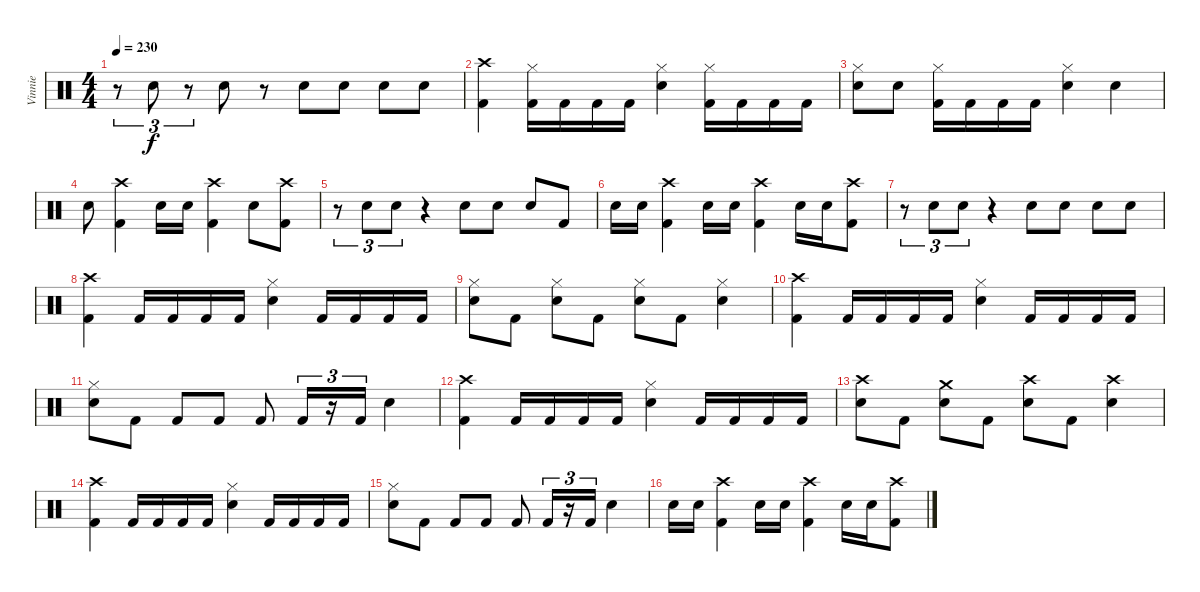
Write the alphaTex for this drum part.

\track ("Vinnie" "Vinnie") {instrument percussion}
\staff {score}
\articulation defaults
\ts (4 4)
\tempo 230
\clef neutral
\ks c
r.8{tu (3 2) dy f} "Electric Snare (hit)".8{tu (3 2)} r.8{tu (3 2)} "Electric Snare (hit)".8 r.8 "Electric Snare (hit)".8 "Electric Snare (hit)".8 "Electric Snare (hit)".8 "Electric Snare (hit)".8 |
("Crash high (hit)" "Kick (hit) 2").4 ("Hi-Hat (closed)" "Kick (hit) 2").16 "Kick (hit) 2".16 "Kick (hit) 2".16 "Kick (hit) 2".16 ("Hi-Hat (closed)" "Electric Snare (hit)").4 ("Hi-Hat (closed)" "Kick (hit) 2").16 "Kick (hit) 2".16 "Kick (hit) 2".16 "Kick (hit) 2".16 |
("Hi-Hat (closed)" "Electric Snare (hit)").8 "Electric Snare (hit)".8 ("Hi-Hat (closed)" "Kick (hit) 2").16 "Kick (hit) 2".16 "Kick (hit) 2".16 "Kick (hit) 2".16 ("Hi-Hat (closed)" "Electric Snare (hit)").4 "Electric Snare (hit)".4 |
"Electric Snare (hit)".8 ("Crash high (hit)" "Kick (hit) 2").4 "Electric Snare (hit)".16 "Electric Snare (hit)".16 ("Crash high (hit)" "Kick (hit) 2").4 "Electric Snare (hit)".8 ("Crash high (hit)" "Kick (hit) 2").8 |
r.8{tu (3 2)} "Electric Snare (hit)".8{tu (3 2)} "Electric Snare (hit)".8{tu (3 2)} r.4 "Electric Snare (hit)".8 "Electric Snare (hit)".8 "Electric Snare (hit)".8 "Kick (hit) 2".8 |
"Electric Snare (hit)".16 "Electric Snare (hit)".16 ("Crash high (hit)" "Kick (hit) 2").4 "Electric Snare (hit)".16 "Electric Snare (hit)".16 ("Crash high (hit)" "Kick (hit) 2").4 "Electric Snare (hit)".16 "Electric Snare (hit)".16 ("Crash high (hit)" "Kick (hit) 2").8 |
r.8{tu (3 2)} "Electric Snare (hit)".8{tu (3 2)} "Electric Snare (hit)".8{tu (3 2)} r.4 "Electric Snare (hit)".8 "Electric Snare (hit)".8 "Electric Snare (hit)".8 "Electric Snare (hit)".8 |
("Crash high (hit)" "Kick (hit) 2").4 "Kick (hit) 2".16 "Kick (hit) 2".16 "Kick (hit) 2".16 "Kick (hit) 2".16 ("Hi-Hat (closed)" "Electric Snare (hit)").4 "Kick (hit) 2".16 "Kick (hit) 2".16 "Kick (hit) 2".16 "Kick (hit) 2".16 |
("Hi-Hat (closed)" "Electric Snare (hit)").8 "Kick (hit) 2".8 ("Hi-Hat (closed)" "Electric Snare (hit)").8 "Kick (hit) 2".8 ("Hi-Hat (closed)" "Electric Snare (hit)").8 "Kick (hit) 2".8 ("Hi-Hat (closed)" "Electric Snare (hit)").4 |
("Crash high (hit)" "Kick (hit) 2").4 "Kick (hit) 2".16 "Kick (hit) 2".16 "Kick (hit) 2".16 "Kick (hit) 2".16 ("Hi-Hat (closed)" "Electric Snare (hit)").4 "Kick (hit) 2".16 "Kick (hit) 2".16 "Kick (hit) 2".16 "Kick (hit) 2".16 |
("Hi-Hat (closed)" "Electric Snare (hit)").8 "Kick (hit) 2".8 "Kick (hit) 2".8 "Kick (hit) 2".8 "Kick (hit) 2".8 "Kick (hit) 2".16{tu (3 2)} r.16{tu (3 2)} "Kick (hit) 2".16{tu (3 2)} "Electric Snare (hit)".4 |
("Crash high (hit)" "Kick (hit) 2").4 "Kick (hit) 2".16 "Kick (hit) 2".16 "Kick (hit) 2".16 "Kick (hit) 2".16 ("Hi-Hat (closed)" "Electric Snare (hit)").4 "Kick (hit) 2".16 "Kick (hit) 2".16 "Kick (hit) 2".16 "Kick (hit) 2".16 |
("Crash high (hit)" "Electric Snare (hit)").8 "Kick (hit) 2".8 ("Crash medium (hit)" "Electric Snare (hit)").8 "Kick (hit) 2".8 ("Crash high (hit)" "Electric Snare (hit)").8 "Kick (hit) 2".8 ("Crash high (hit)" "Electric Snare (hit)").4 |
("Crash high (hit)" "Kick (hit) 2").4 "Kick (hit) 2".16 "Kick (hit) 2".16 "Kick (hit) 2".16 "Kick (hit) 2".16 ("Hi-Hat (closed)" "Electric Snare (hit)").4 "Kick (hit) 2".16 "Kick (hit) 2".16 "Kick (hit) 2".16 "Kick (hit) 2".16 |
("Hi-Hat (closed)" "Electric Snare (hit)").8 "Kick (hit) 2".8 "Kick (hit) 2".8 "Kick (hit) 2".8 "Kick (hit) 2".8 "Kick (hit) 2".16{tu (3 2)} r.16{tu (3 2)} "Kick (hit) 2".16{tu (3 2)} "Electric Snare (hit)".4 |
"Electric Snare (hit)".16 "Electric Snare (hit)".16 ("Crash high (hit)" "Kick (hit) 2").4 "Electric Snare (hit)".16 "Electric Snare (hit)".16 ("Crash high (hit)" "Kick (hit) 2").4 "Electric Snare (hit)".16 "Electric Snare (hit)".16 ("Crash high (hit)" "Kick (hit) 2").8
